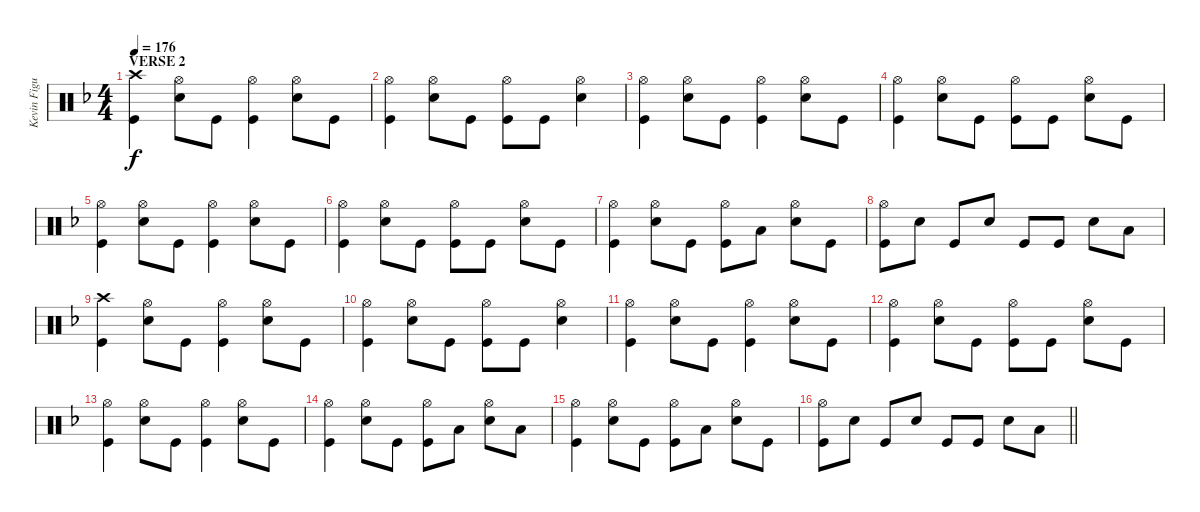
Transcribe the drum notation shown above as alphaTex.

\track ("Kevin Figueiredo - Drums" "Kevin Figu") {instrument percussion}
\staff {score}
\articulation defaults
\ts (4 4)
\section ("" "VERSE 2")
\tempo 176
\clef neutral
\ks f
("Crash high (hit)" "Kick (hit)").4{dy f} ("Hi-Hat (open)" "Snare (hit) 2").8 "Kick (hit)".8 ("Hi-Hat (open)" "Kick (hit)").4 ("Hi-Hat (open)" "Snare (hit) 2").8 "Kick (hit)".8 |
("Hi-Hat (open)" "Kick (hit)").4 ("Hi-Hat (open)" "Snare (hit) 2").8 "Kick (hit)".8 ("Hi-Hat (open)" "Kick (hit)").8 "Kick (hit)".8 ("Hi-Hat (open)" "Snare (hit) 2").4 |
("Hi-Hat (open)" "Kick (hit)").4 ("Hi-Hat (open)" "Snare (hit) 2").8 "Kick (hit)".8 ("Hi-Hat (open)" "Kick (hit)").4 ("Hi-Hat (open)" "Snare (hit) 2").8 "Kick (hit)".8 |
("Hi-Hat (open)" "Kick (hit)").4 ("Hi-Hat (open)" "Snare (hit) 2").8 "Kick (hit)".8 ("Hi-Hat (open)" "Kick (hit)").8 "Kick (hit)".8 ("Hi-Hat (open)" "Snare (hit) 2").8 "Kick (hit)".8 |
("Hi-Hat (open)" "Kick (hit)").4 ("Hi-Hat (open)" "Snare (hit) 2").8 "Kick (hit)".8 ("Hi-Hat (open)" "Kick (hit)").4 ("Hi-Hat (open)" "Snare (hit) 2").8 "Kick (hit)".8 |
("Hi-Hat (open)" "Kick (hit)").4 ("Hi-Hat (open)" "Snare (hit) 2").8 "Kick (hit)".8 ("Hi-Hat (open)" "Kick (hit)").8 "Kick (hit)".8 ("Hi-Hat (open)" "Snare (hit) 2").8 "Kick (hit)".8 |
("Hi-Hat (open)" "Kick (hit)").4 ("Hi-Hat (open)" "Snare (hit) 2").8 "Kick (hit)".8 ("Hi-Hat (open)" "Kick (hit)").8 "Low Floor Tom (hit)".8 ("Hi-Hat (open)" "Snare (hit) 2").8 "Kick (hit)".8 |
("Hi-Hat (open)" "Kick (hit)").8 "Snare (hit) 2".8 "Kick (hit)".8 "Snare (hit) 2".8 "Kick (hit)".8 "Kick (hit)".8 "Snare (hit) 2".8 "Low Floor Tom (hit)".8 |
("Crash high (hit)" "Kick (hit)").4 ("Hi-Hat (open)" "Snare (hit) 2").8 "Kick (hit)".8 ("Hi-Hat (open)" "Kick (hit)").4 ("Hi-Hat (open)" "Snare (hit) 2").8 "Kick (hit)".8 |
("Hi-Hat (open)" "Kick (hit)").4 ("Hi-Hat (open)" "Snare (hit) 2").8 "Kick (hit)".8 ("Hi-Hat (open)" "Kick (hit)").8 "Kick (hit)".8 ("Hi-Hat (open)" "Snare (hit) 2").4 |
("Hi-Hat (open)" "Kick (hit)").4 ("Hi-Hat (open)" "Snare (hit) 2").8 "Kick (hit)".8 ("Hi-Hat (open)" "Kick (hit)").4 ("Hi-Hat (open)" "Snare (hit) 2").8 "Kick (hit)".8 |
("Hi-Hat (open)" "Kick (hit)").4 ("Hi-Hat (open)" "Snare (hit) 2").8 "Kick (hit)".8 ("Hi-Hat (open)" "Kick (hit)").8 "Kick (hit)".8 ("Hi-Hat (open)" "Snare (hit) 2").8 "Kick (hit)".8 |
("Hi-Hat (open)" "Kick (hit)").4 ("Hi-Hat (open)" "Snare (hit) 2").8 "Kick (hit)".8 ("Hi-Hat (open)" "Kick (hit)").4 ("Hi-Hat (open)" "Snare (hit) 2").8 "Kick (hit)".8 |
("Hi-Hat (open)" "Kick (hit)").4 ("Hi-Hat (open)" "Snare (hit) 2").8 "Kick (hit)".8 ("Hi-Hat (open)" "Kick (hit)").8 "Low Floor Tom (hit)".8 ("Hi-Hat (open)" "Snare (hit) 2").8 "Low Floor Tom (hit)".8 |
("Hi-Hat (open)" "Kick (hit)").4 ("Hi-Hat (open)" "Snare (hit) 2").8 "Kick (hit)".8 ("Hi-Hat (open)" "Kick (hit)").8 "Low Floor Tom (hit)".8 ("Hi-Hat (open)" "Snare (hit) 2").8 "Kick (hit)".8 |
\barLineRight lightlight
("Hi-Hat (open)" "Kick (hit)").8 "Snare (hit) 2".8 "Kick (hit)".8 "Snare (hit) 2".8 "Kick (hit)".8 "Kick (hit)".8 "Snare (hit) 2".8 "Low Floor Tom (hit)".8
